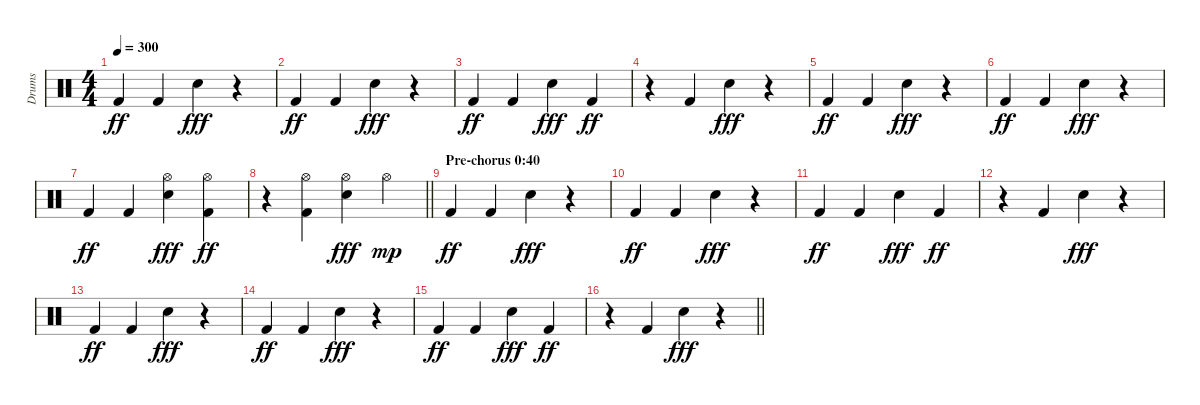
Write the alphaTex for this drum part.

\track ("Drums" "Drums") {instrument percussion}
\staff {score}
\articulation defaults
\ts (4 4)
\tempo 300
\clef neutral
\ks c "Kick (hit) 2".4{dy ff} "Kick (hit) 2".4 "Electric Snare (hit)".4{dy fff}
r.4 |
"Kick (hit) 2".4{dy ff} "Kick (hit) 2".4 "Electric Snare (hit)".4{dy fff} r.4 |
"Kick (hit) 2".4{dy ff} "Kick (hit) 2".4 "Electric Snare (hit)".4{dy fff} "Kick (hit) 2".4{dy ff} |
r.4 "Kick (hit) 2".4 "Electric Snare (hit)".4{dy fff} r.4 |
"Kick (hit) 2".4{dy ff} "Kick (hit) 2".4 "Electric Snare (hit)".4{dy fff} r.4 |
"Kick (hit) 2".4{dy ff} "Kick (hit) 2".4 "Electric Snare (hit)".4{dy fff} r.4 |
"Kick (hit) 2".4{dy ff} "Kick (hit) 2".4 ("Hi-Hat (open)" "Electric Snare (hit)").4{dy fff} ("Hi-Hat (open)" "Kick (hit) 2").4{dy ff} |
\barLineRight lightlight
r.4 ("Hi-Hat (open)" "Kick (hit) 2").4 ("Hi-Hat (open)" "Electric Snare (hit)").4{dy fff} "Hi-Hat (open)".4{dy mp} |
\section ("" "Pre-chorus 0:40")
"Kick (hit) 2".4{dy ff} "Kick (hit) 2".4 "Electric Snare (hit)".4{dy fff} r.4 |
"Kick (hit) 2".4{dy ff} "Kick (hit) 2".4 "Electric Snare (hit)".4{dy fff} r.4 |
"Kick (hit) 2".4{dy ff} "Kick (hit) 2".4 "Electric Snare (hit)".4{dy fff} "Kick (hit) 2".4{dy ff} |
r.4 "Kick (hit) 2".4 "Electric Snare (hit)".4{dy fff} r.4 |
"Kick (hit) 2".4{dy ff} "Kick (hit) 2".4 "Electric Snare (hit)".4{dy fff} r.4 |
"Kick (hit) 2".4{dy ff} "Kick (hit) 2".4 "Electric Snare (hit)".4{dy fff} r.4 |
"Kick (hit) 2".4{dy ff} "Kick (hit) 2".4 "Electric Snare (hit)".4{dy fff} "Kick (hit) 2".4{dy ff} |
\barLineRight lightlight
r.4 "Kick (hit) 2".4 "Electric Snare (hit)".4{dy fff} r.4
